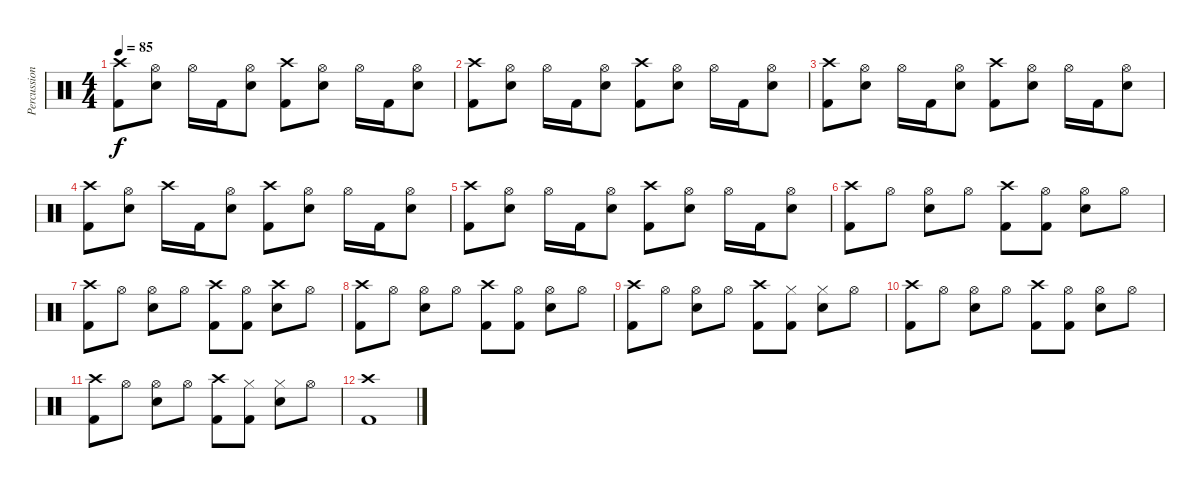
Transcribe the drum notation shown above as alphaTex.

\track ("Percussion" "Percussion") {instrument percussion}
\staff {score}
\articulation defaults
\ts (4 4)
\tempo 85
\clef neutral
\ks c
("Crash high (hit)" "Kick (hit) 2").8{dy f} ("Hi-Hat (open)" "Snare (hit) 2").8 "Hi-Hat (open)".16 "Kick (hit) 2".16 ("Hi-Hat (open)" "Snare (hit) 2").8 ("Crash high (hit)" "Kick (hit) 2").8 ("Hi-Hat (open)" "Snare (hit) 2").8 "Hi-Hat (open)".16 "Kick (hit) 2".16 ("Hi-Hat (open)" "Snare (hit) 2").8 |
("Crash high (hit)" "Kick (hit) 2").8 ("Hi-Hat (open)" "Snare (hit) 2").8 "Hi-Hat (open)".16 "Kick (hit) 2".16 ("Hi-Hat (open)" "Snare (hit) 2").8 ("Crash high (hit)" "Kick (hit) 2").8 ("Hi-Hat (open)" "Snare (hit) 2").8 "Hi-Hat (open)".16 "Kick (hit) 2".16 ("Hi-Hat (open)" "Snare (hit) 2").8 |
("Crash high (hit)" "Kick (hit) 2").8 ("Hi-Hat (open)" "Snare (hit) 2").8 "Hi-Hat (open)".16 "Kick (hit) 2".16 ("Hi-Hat (open)" "Snare (hit) 2").8 ("Crash high (hit)" "Kick (hit) 2").8 ("Hi-Hat (open)" "Snare (hit) 2").8 "Hi-Hat (open)".16 "Kick (hit) 2".16 ("Hi-Hat (open)" "Snare (hit) 2").8 |
("Crash high (hit)" "Kick (hit) 2").8 ("Hi-Hat (open)" "Snare (hit) 2").8 "Crash high (hit)".16 "Kick (hit) 2".16 ("Hi-Hat (open)" "Snare (hit) 2").8 ("Crash high (hit)" "Kick (hit) 2").8 ("Hi-Hat (open)" "Snare (hit) 2").8 "Hi-Hat (open)".16 "Kick (hit) 2".16 ("Hi-Hat (open)" "Snare (hit) 2").8 |
("Crash high (hit)" "Kick (hit) 2").8 ("Hi-Hat (open)" "Snare (hit) 2").8 "Hi-Hat (open)".16 "Kick (hit) 2".16 ("Hi-Hat (open)" "Snare (hit) 2").8 ("Crash high (hit)" "Kick (hit) 2").8 ("Hi-Hat (open)" "Snare (hit) 2").8 "Hi-Hat (open)".16 "Kick (hit) 2".16 ("Hi-Hat (open)" "Snare (hit) 2").8 |
("Crash high (hit)" "Kick (hit) 2").8 "Hi-Hat (open)".8 ("Hi-Hat (open)" "Snare (hit) 2").8 "Hi-Hat (open)".8 ("Crash high (hit)" "Kick (hit) 2").8 ("Hi-Hat (open)" "Kick (hit) 2").8 ("Hi-Hat (open)" "Snare (hit) 2").8 "Hi-Hat (open)".8 |
("Crash high (hit)" "Kick (hit) 2").8 "Hi-Hat (open)".8 ("Hi-Hat (open)" "Snare (hit) 2").8 "Hi-Hat (open)".8 ("Crash high (hit)" "Kick (hit) 2").8 ("Hi-Hat (open)" "Kick (hit) 2").8 ("Crash high (hit)" "Snare (hit) 2").8 "Hi-Hat (open)".8 |
("Crash high (hit)" "Kick (hit) 2").8 "Hi-Hat (open)".8 ("Hi-Hat (open)" "Snare (hit) 2").8 "Hi-Hat (open)".8 ("Crash high (hit)" "Kick (hit) 2").8 ("Hi-Hat (open)" "Kick (hit) 2").8 ("Hi-Hat (open)" "Snare (hit) 2").8 "Hi-Hat (open)".8 |
("Crash high (hit)" "Kick (hit) 2").8 "Hi-Hat (open)".8 ("Hi-Hat (open)" "Snare (hit) 2").8 "Hi-Hat (open)".8 ("Crash high (hit)" "Kick (hit) 2").8 ("Hi-Hat (closed)" "Kick (hit) 2").8 ("Hi-Hat (closed)" "Snare (hit) 2").8 "Hi-Hat (open)".8 |
("Crash high (hit)" "Kick (hit) 2").8 "Hi-Hat (open)".8 ("Hi-Hat (open)" "Snare (hit) 2").8 "Hi-Hat (open)".8 ("Crash high (hit)" "Kick (hit) 2").8 ("Hi-Hat (open)" "Kick (hit) 2").8 ("Hi-Hat (open)" "Snare (hit) 2").8 "Hi-Hat (open)".8 |
("Crash high (hit)" "Kick (hit) 2").8 "Hi-Hat (open)".8 ("Hi-Hat (open)" "Snare (hit) 2").8 "Hi-Hat (open)".8 ("Crash high (hit)" "Kick (hit) 2").8 ("Hi-Hat (closed)" "Kick (hit) 2").8 ("Hi-Hat (closed)" "Snare (hit) 2").8 "Hi-Hat (open)".8 |
("Crash high (hit)" "Kick (hit) 2").1
